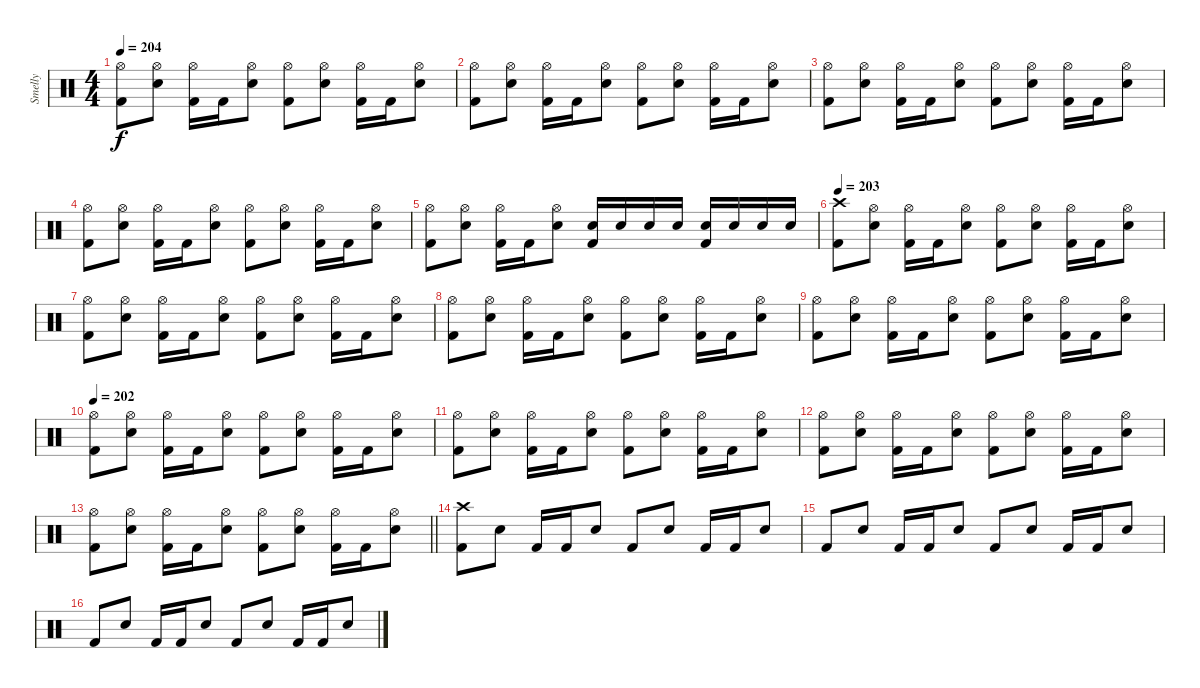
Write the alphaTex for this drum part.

\track ("Smelly" "Smelly") {instrument percussion}
\staff {score}
\articulation defaults
\ts (4 4)
\tempo 204
\clef neutral
\ks c
("Hi-Hat (open)" "Kick (hit) 2").8{dy f} ("Hi-Hat (open)" "Electric Snare (hit)").8 ("Hi-Hat (open)" "Kick (hit) 2").16 "Kick (hit) 2".16 ("Hi-Hat (open)" "Electric Snare (hit)").8 ("Hi-Hat (open)" "Kick (hit) 2").8 ("Hi-Hat (open)" "Electric Snare (hit)").8 ("Hi-Hat (open)" "Kick (hit) 2").16 "Kick (hit) 2".16 ("Hi-Hat (open)" "Electric Snare (hit)").8 |
("Hi-Hat (open)" "Kick (hit) 2").8 ("Hi-Hat (open)" "Electric Snare (hit)").8 ("Hi-Hat (open)" "Kick (hit) 2").16 "Kick (hit) 2".16 ("Hi-Hat (open)" "Electric Snare (hit)").8 ("Hi-Hat (open)" "Kick (hit) 2").8 ("Hi-Hat (open)" "Electric Snare (hit)").8 ("Hi-Hat (open)" "Kick (hit) 2").16 "Kick (hit) 2".16 ("Hi-Hat (open)" "Electric Snare (hit)").8 |
("Hi-Hat (open)" "Kick (hit) 2").8 ("Hi-Hat (open)" "Electric Snare (hit)").8 ("Hi-Hat (open)" "Kick (hit) 2").16 "Kick (hit) 2".16 ("Hi-Hat (open)" "Electric Snare (hit)").8 ("Hi-Hat (open)" "Kick (hit) 2").8 ("Hi-Hat (open)" "Electric Snare (hit)").8 ("Hi-Hat (open)" "Kick (hit) 2").16 "Kick (hit) 2".16 ("Hi-Hat (open)" "Electric Snare (hit)").8 |
("Hi-Hat (open)" "Kick (hit) 2").8 ("Hi-Hat (open)" "Electric Snare (hit)").8 ("Hi-Hat (open)" "Kick (hit) 2").16 "Kick (hit) 2".16 ("Hi-Hat (open)" "Electric Snare (hit)").8 ("Hi-Hat (open)" "Kick (hit) 2").8 ("Hi-Hat (open)" "Electric Snare (hit)").8 ("Hi-Hat (open)" "Kick (hit) 2").16 "Kick (hit) 2".16 ("Hi-Hat (open)" "Electric Snare (hit)").8 |
("Hi-Hat (open)" "Kick (hit) 2").8 ("Hi-Hat (open)" "Electric Snare (hit)").8 ("Hi-Hat (open)" "Kick (hit) 2").16 "Kick (hit) 2".16 ("Hi-Hat (open)" "Electric Snare (hit)").8 ("Electric Snare (hit)" "Kick (hit) 2").16 "Electric Snare (hit)".16 "Electric Snare (hit)".16 "Electric Snare (hit)".16 ("Electric Snare (hit)" "Kick (hit) 2").16 "Electric Snare (hit)".16 "Electric Snare (hit)".16 "Electric Snare (hit)".16 |
\tempo 203
("Crash high (hit)" "Kick (hit) 2").8 ("Hi-Hat (open)" "Electric Snare (hit)").8 ("Hi-Hat (open)" "Kick (hit) 2").16 "Kick (hit) 2".16 ("Hi-Hat (open)" "Electric Snare (hit)").8 ("Hi-Hat (open)" "Kick (hit) 2").8 ("Hi-Hat (open)" "Electric Snare (hit)").8 ("Hi-Hat (open)" "Kick (hit) 2").16 "Kick (hit) 2".16 ("Hi-Hat (open)" "Electric Snare (hit)").8 |
("Hi-Hat (open)" "Kick (hit) 2").8 ("Hi-Hat (open)" "Electric Snare (hit)").8 ("Hi-Hat (open)" "Kick (hit) 2").16 "Kick (hit) 2".16 ("Hi-Hat (open)" "Electric Snare (hit)").8 ("Hi-Hat (open)" "Kick (hit) 2").8 ("Hi-Hat (open)" "Electric Snare (hit)").8 ("Hi-Hat (open)" "Kick (hit) 2").16 "Kick (hit) 2".16 ("Hi-Hat (open)" "Electric Snare (hit)").8 |
("Hi-Hat (open)" "Kick (hit) 2").8 ("Hi-Hat (open)" "Electric Snare (hit)").8 ("Hi-Hat (open)" "Kick (hit) 2").16 "Kick (hit) 2".16 ("Hi-Hat (open)" "Electric Snare (hit)").8 ("Hi-Hat (open)" "Kick (hit) 2").8 ("Hi-Hat (open)" "Electric Snare (hit)").8 ("Hi-Hat (open)" "Kick (hit) 2").16 "Kick (hit) 2".16 ("Hi-Hat (open)" "Electric Snare (hit)").8 |
("Hi-Hat (open)" "Kick (hit) 2").8 ("Hi-Hat (open)" "Electric Snare (hit)").8 ("Hi-Hat (open)" "Kick (hit) 2").16 "Kick (hit) 2".16 ("Hi-Hat (open)" "Electric Snare (hit)").8 ("Hi-Hat (open)" "Kick (hit) 2").8 ("Hi-Hat (open)" "Electric Snare (hit)").8 ("Hi-Hat (open)" "Kick (hit) 2").16 "Kick (hit) 2".16 ("Hi-Hat (open)" "Electric Snare (hit)").8 |
\tempo 202
("Hi-Hat (open)" "Kick (hit) 2").8 ("Hi-Hat (open)" "Electric Snare (hit)").8 ("Hi-Hat (open)" "Kick (hit) 2").16 "Kick (hit) 2".16 ("Hi-Hat (open)" "Electric Snare (hit)").8 ("Hi-Hat (open)" "Kick (hit) 2").8 ("Hi-Hat (open)" "Electric Snare (hit)").8 ("Hi-Hat (open)" "Kick (hit) 2").16 "Kick (hit) 2".16 ("Hi-Hat (open)" "Electric Snare (hit)").8 |
("Hi-Hat (open)" "Kick (hit) 2").8 ("Hi-Hat (open)" "Electric Snare (hit)").8 ("Hi-Hat (open)" "Kick (hit) 2").16 "Kick (hit) 2".16 ("Hi-Hat (open)" "Electric Snare (hit)").8 ("Hi-Hat (open)" "Kick (hit) 2").8 ("Hi-Hat (open)" "Electric Snare (hit)").8 ("Hi-Hat (open)" "Kick (hit) 2").16 "Kick (hit) 2".16 ("Hi-Hat (open)" "Electric Snare (hit)").8 |
("Hi-Hat (open)" "Kick (hit) 2").8 ("Hi-Hat (open)" "Electric Snare (hit)").8 ("Hi-Hat (open)" "Kick (hit) 2").16 "Kick (hit) 2".16 ("Hi-Hat (open)" "Electric Snare (hit)").8 ("Hi-Hat (open)" "Kick (hit) 2").8 ("Hi-Hat (open)" "Electric Snare (hit)").8 ("Hi-Hat (open)" "Kick (hit) 2").16 "Kick (hit) 2".16 ("Hi-Hat (open)" "Electric Snare (hit)").8 |
\barLineRight lightlight
("Hi-Hat (open)" "Kick (hit) 2").8 ("Hi-Hat (open)" "Electric Snare (hit)").8 ("Hi-Hat (open)" "Kick (hit) 2").16 "Kick (hit) 2".16 ("Hi-Hat (open)" "Electric Snare (hit)").8 ("Hi-Hat (open)" "Kick (hit) 2").8 ("Hi-Hat (open)" "Electric Snare (hit)").8 ("Hi-Hat (open)" "Kick (hit) 2").16 "Kick (hit) 2".16 ("Hi-Hat (open)" "Electric Snare (hit)").8 |
\section ("" "")
("Crash high (hit)" "Kick (hit) 2").8 "Electric Snare (hit)".8 "Kick (hit) 2".16 "Kick (hit) 2".16 "Electric Snare (hit)".8 "Kick (hit) 2".8 "Electric Snare (hit)".8 "Kick (hit) 2".16 "Kick (hit) 2".16 "Electric Snare (hit)".8 |
"Kick (hit) 2".8 "Electric Snare (hit)".8 "Kick (hit) 2".16 "Kick (hit) 2".16 "Electric Snare (hit)".8 "Kick (hit) 2".8 "Electric Snare (hit)".8 "Kick (hit) 2".16 "Kick (hit) 2".16 "Electric Snare (hit)".8 |
"Kick (hit) 2".8 "Electric Snare (hit)".8 "Kick (hit) 2".16 "Kick (hit) 2".16 "Electric Snare (hit)".8 "Kick (hit) 2".8 "Electric Snare (hit)".8 "Kick (hit) 2".16 "Kick (hit) 2".16 "Electric Snare (hit)".8
